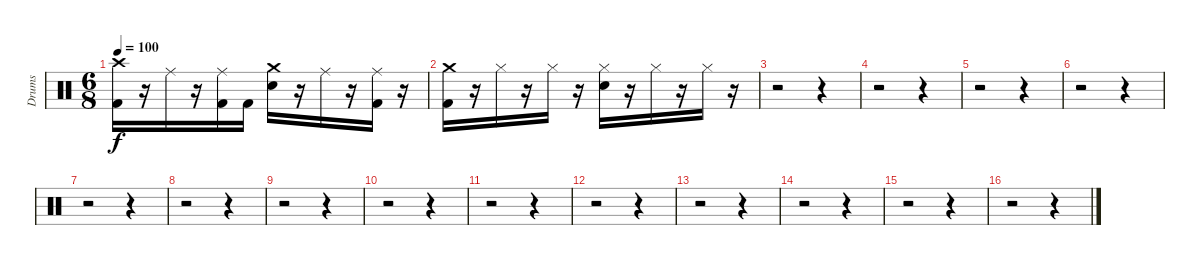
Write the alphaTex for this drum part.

\track ("Drums" "Drums") {instrument percussion}
\staff {score}
\articulation defaults
\ts (6 8)
\tempo 100
\clef neutral
\ks c
("Kick (hit) 2" "Crash high (hit)").16{dy f} r.16 "Ride (middle)".16 r.16 ("Kick (hit) 2" "Ride (middle)").16 "Kick (hit) 2".16 ("Snare (hit) 2" "Crash medium (hit)").16 r.16 "Ride (middle)".16 r.16 ("Kick (hit) 2" "Ride (middle)").16 r.16 |
("Kick (hit) 2" "Crash medium (hit)").16 r.16 "Hi-Hat (closed)".16 r.16 "Hi-Hat (closed)".16 r.16 ("Snare (hit) 2" "Hi-Hat (closed)").16 r.16 "Hi-Hat (closed)".16 r.16 "Hi-Hat (closed)".16 r.16 |
r.2 r.4 |
r.2 r.4 |
r.2 r.4 |
r.2 r.4 |
r.2 r.4 |
r.2 r.4 |
r.2 r.4 |
r.2 r.4 |
r.2 r.4 |
r.2 r.4 |
r.2 r.4 |
r.2 r.4 |
r.2 r.4 |
r.2 r.4
